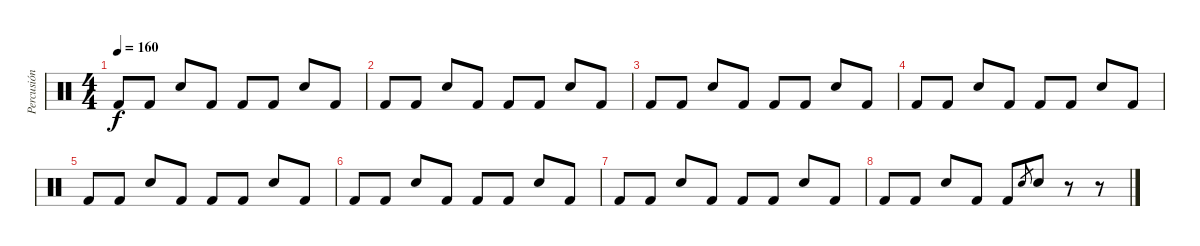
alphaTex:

\track ("Percusión" "Percusión") {instrument percussion}
\staff {score}
\articulation defaults
\ts (4 4)
\tempo 160
\clef neutral
\ks c "Kick (hit) 2".8{dy f} "Kick (hit) 2".8 "Electric Snare (hit)".8 "Kick (hit) 2".8 "Kick (hit) 2".8 "Kick (hit) 2".8 "Electric Snare (hit)".8 "Kick (hit) 2".8
|
"Kick (hit) 2".8 "Kick (hit) 2".8 "Electric Snare (hit)".8 "Kick (hit) 2".8 "Kick (hit) 2".8 "Kick (hit) 2".8 "Electric Snare (hit)".8 "Kick (hit) 2".8 |
"Kick (hit) 2".8 "Kick (hit) 2".8 "Electric Snare (hit)".8 "Kick (hit) 2".8 "Kick (hit) 2".8 "Kick (hit) 2".8 "Electric Snare (hit)".8 "Kick (hit) 2".8 |
"Kick (hit) 2".8 "Kick (hit) 2".8 "Electric Snare (hit)".8 "Kick (hit) 2".8 "Kick (hit) 2".8 "Kick (hit) 2".8 "Electric Snare (hit)".8 "Kick (hit) 2".8 |
"Kick (hit) 2".8 "Kick (hit) 2".8 "Electric Snare (hit)".8 "Kick (hit) 2".8 "Kick (hit) 2".8 "Kick (hit) 2".8 "Electric Snare (hit)".8 "Kick (hit) 2".8 |
"Kick (hit) 2".8 "Kick (hit) 2".8 "Electric Snare (hit)".8 "Kick (hit) 2".8 "Kick (hit) 2".8 "Kick (hit) 2".8 "Electric Snare (hit)".8 "Kick (hit) 2".8 |
"Kick (hit) 2".8 "Kick (hit) 2".8 "Electric Snare (hit)".8 "Kick (hit) 2".8 "Kick (hit) 2".8 "Kick (hit) 2".8 "Electric Snare (hit)".8 "Kick (hit) 2".8 |
"Kick (hit) 2".8 "Kick (hit) 2".8 "Electric Snare (hit)".8 "Kick (hit) 2".8 "Kick (hit) 2".8 "Snare (hit) 2".8{gr} "Electric Snare (hit)".8 r.8 r.8
